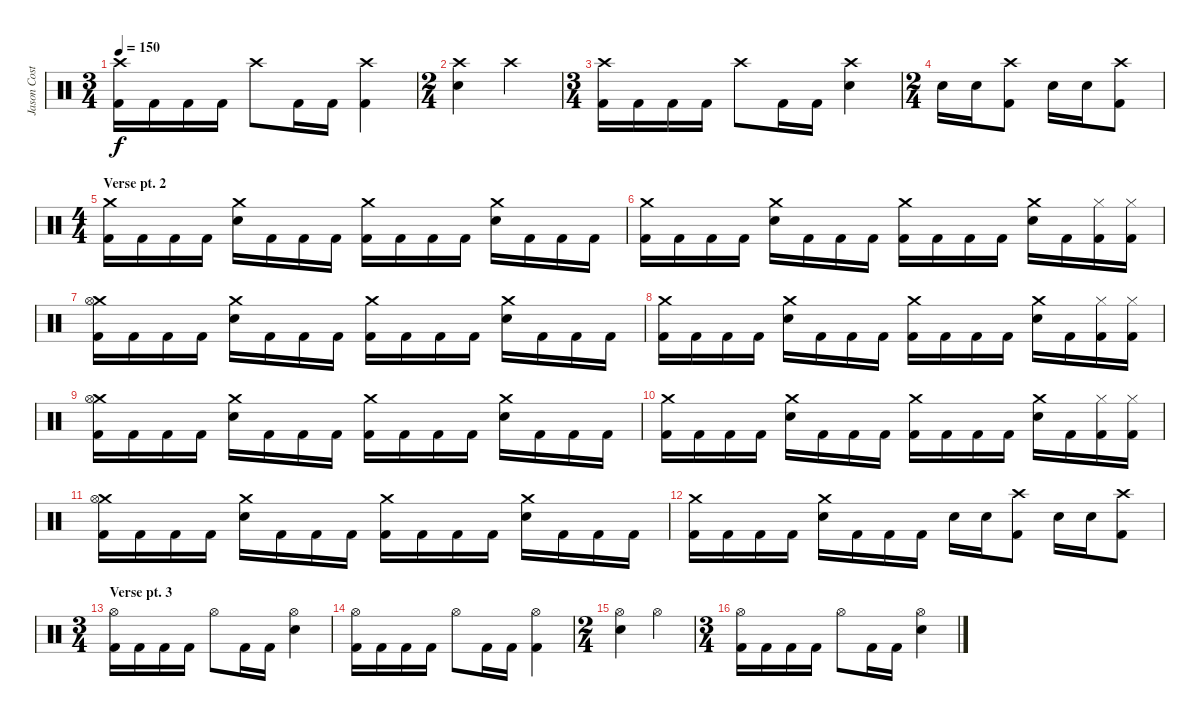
\track ("Jason Costa" "Jason Cost") {instrument percussion}
\staff {score}
\articulation defaults
\ts (3 4)
\tempo 150
\clef neutral
\ks c
("Crash high (hit)" "Kick (hit) 2").16{dy f} "Kick (hit) 2".16 "Kick (hit) 2".16 "Kick (hit) 2".16 "Crash high (hit)".8 "Kick (hit) 2".16 "Kick (hit) 2".16 ("Crash high (hit)" "Kick (hit) 2").4 |
\ts (2 4)
("Crash high (hit)" "Electric Snare (hit)").4 "Crash high (hit)".4 |
\ts (3 4)
("Crash high (hit)" "Kick (hit) 2").16 "Kick (hit) 2".16 "Kick (hit) 2".16 "Kick (hit) 2".16 "Crash high (hit)".8 "Kick (hit) 2".16 "Kick (hit) 2".16 ("Crash high (hit)" "Electric Snare (hit)").4 |
\ts (2 4)
"Electric Snare (hit)".16 "Electric Snare (hit)".16 ("Crash high (hit)" "Kick (hit) 2").8 "Electric Snare (hit)".16 "Electric Snare (hit)".16 ("Crash high (hit)" "Kick (hit) 2").8 |
\ts (4 4)
\section ("" "Verse pt. 2")
("Crash medium (hit)" "Kick (hit) 2").16 "Kick (hit) 2".16 "Kick (hit) 2".16 "Kick (hit) 2".16 ("Crash medium (hit)" "Electric Snare (hit)").16 "Kick (hit) 2".16 "Kick (hit) 2".16 "Kick (hit) 2".16 ("Crash medium (hit)" "Kick (hit) 2").16 "Kick (hit) 2".16 "Kick (hit) 2".16 "Kick (hit) 2".16 ("Crash medium (hit)" "Electric Snare (hit)").16 "Kick (hit) 2".16 "Kick (hit) 2".16 "Kick (hit) 2".16 |
("Crash medium (hit)" "Kick (hit) 2").16 "Kick (hit) 2".16 "Kick (hit) 2".16 "Kick (hit) 2".16 ("Crash medium (hit)" "Electric Snare (hit)").16 "Kick (hit) 2".16 "Kick (hit) 2".16 "Kick (hit) 2".16 ("Crash medium (hit)" "Kick (hit) 2").16 "Kick (hit) 2".16 "Kick (hit) 2".16 "Kick (hit) 2".16 ("Crash medium (hit)" "Electric Snare (hit)").16 "Kick (hit) 2".16 ("Hi-Hat (closed)" "Kick (hit) 2").16 ("Hi-Hat (closed)" "Kick (hit) 2").16 |
("Crash medium (hit)" "Hi-Hat (open)" "Kick (hit) 2").16 "Kick (hit) 2".16 "Kick (hit) 2".16 "Kick (hit) 2".16 ("Crash medium (hit)" "Electric Snare (hit)").16 "Kick (hit) 2".16 "Kick (hit) 2".16 "Kick (hit) 2".16 ("Crash medium (hit)" "Kick (hit) 2").16 "Kick (hit) 2".16 "Kick (hit) 2".16 "Kick (hit) 2".16 ("Crash medium (hit)" "Electric Snare (hit)").16 "Kick (hit) 2".16 "Kick (hit) 2".16 "Kick (hit) 2".16 |
("Crash medium (hit)" "Kick (hit) 2").16 "Kick (hit) 2".16 "Kick (hit) 2".16 "Kick (hit) 2".16 ("Crash medium (hit)" "Electric Snare (hit)").16 "Kick (hit) 2".16 "Kick (hit) 2".16 "Kick (hit) 2".16 ("Crash medium (hit)" "Kick (hit) 2").16 "Kick (hit) 2".16 "Kick (hit) 2".16 "Kick (hit) 2".16 ("Crash medium (hit)" "Electric Snare (hit)").16 "Kick (hit) 2".16 ("Hi-Hat (closed)" "Kick (hit) 2").16 ("Hi-Hat (closed)" "Kick (hit) 2").16 |
("Crash medium (hit)" "Hi-Hat (open)" "Kick (hit) 2").16 "Kick (hit) 2".16 "Kick (hit) 2".16 "Kick (hit) 2".16 ("Crash medium (hit)" "Electric Snare (hit)").16 "Kick (hit) 2".16 "Kick (hit) 2".16 "Kick (hit) 2".16 ("Crash medium (hit)" "Kick (hit) 2").16 "Kick (hit) 2".16 "Kick (hit) 2".16 "Kick (hit) 2".16 ("Crash medium (hit)" "Electric Snare (hit)").16 "Kick (hit) 2".16 "Kick (hit) 2".16 "Kick (hit) 2".16 |
("Crash medium (hit)" "Kick (hit) 2").16 "Kick (hit) 2".16 "Kick (hit) 2".16 "Kick (hit) 2".16 ("Crash medium (hit)" "Electric Snare (hit)").16 "Kick (hit) 2".16 "Kick (hit) 2".16 "Kick (hit) 2".16 ("Crash medium (hit)" "Kick (hit) 2").16 "Kick (hit) 2".16 "Kick (hit) 2".16 "Kick (hit) 2".16 ("Crash medium (hit)" "Electric Snare (hit)").16 "Kick (hit) 2".16 ("Hi-Hat (closed)" "Kick (hit) 2").16 ("Hi-Hat (closed)" "Kick (hit) 2").16 |
("Crash medium (hit)" "Hi-Hat (open)" "Kick (hit) 2").16 "Kick (hit) 2".16 "Kick (hit) 2".16 "Kick (hit) 2".16 ("Crash medium (hit)" "Electric Snare (hit)").16 "Kick (hit) 2".16 "Kick (hit) 2".16 "Kick (hit) 2".16 ("Crash medium (hit)" "Kick (hit) 2").16 "Kick (hit) 2".16 "Kick (hit) 2".16 "Kick (hit) 2".16 ("Crash medium (hit)" "Electric Snare (hit)").16 "Kick (hit) 2".16 "Kick (hit) 2".16 "Kick (hit) 2".16 |
("Crash medium (hit)" "Kick (hit) 2").16 "Kick (hit) 2".16 "Kick (hit) 2".16 "Kick (hit) 2".16 ("Crash medium (hit)" "Electric Snare (hit)").16 "Kick (hit) 2".16 "Kick (hit) 2".16 "Kick (hit) 2".16 "Electric Snare (hit)".16 "Electric Snare (hit)".16 ("Crash high (hit)" "Kick (hit) 2").8 "Electric Snare (hit)".16 "Electric Snare (hit)".16 ("Crash high (hit)" "Kick (hit) 2").8 |
\ts (3 4)
\section ("" "Verse pt. 3")
("Hi-Hat (open)" "Kick (hit) 2").16 "Kick (hit) 2".16 "Kick (hit) 2".16 "Kick (hit) 2".16 "Hi-Hat (open)".8 "Kick (hit) 2".16 "Kick (hit) 2".16 ("Hi-Hat (open)" "Electric Snare (hit)").4 |
("Hi-Hat (open)" "Kick (hit) 2").16 "Kick (hit) 2".16 "Kick (hit) 2".16 "Kick (hit) 2".16 "Hi-Hat (open)".8 "Kick (hit) 2".16 "Kick (hit) 2".16 ("Hi-Hat (open)" "Kick (hit) 2").4 |
\ts (2 4)
("Hi-Hat (open)" "Electric Snare (hit)").4 "Hi-Hat (open)".4 |
\ts (3 4)
("Hi-Hat (open)" "Kick (hit) 2").16 "Kick (hit) 2".16 "Kick (hit) 2".16 "Kick (hit) 2".16 "Hi-Hat (open)".8 "Kick (hit) 2".16 "Kick (hit) 2".16 ("Hi-Hat (open)" "Electric Snare (hit)").4
